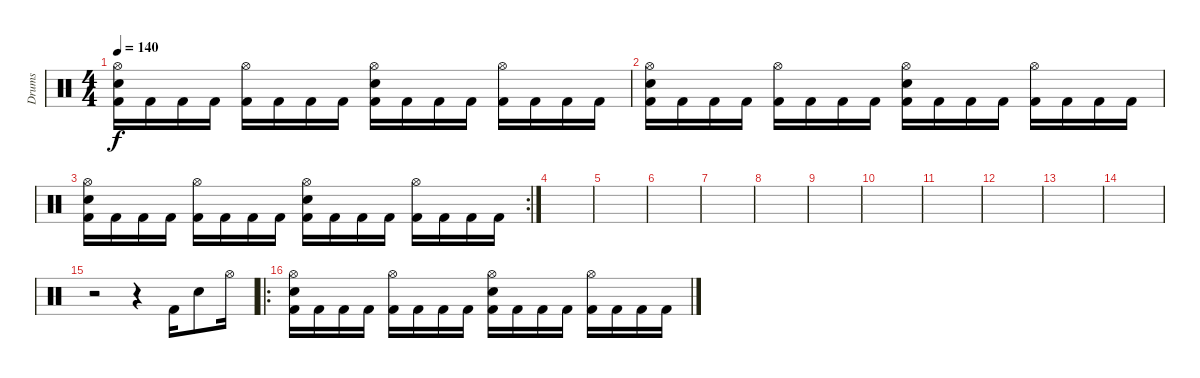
\track ("Drums" "Drums") {instrument percussion}
\staff {score}
\articulation defaults
\ts (4 4)
\tempo 140
\clef neutral
\ks c
("Kick (hit) 2" "Electric Snare (hit)" "Hi-Hat (open)").16{dy f} "Kick (hit) 2".16 "Kick (hit) 2".16 "Kick (hit) 2".16 ("Kick (hit) 2" "Hi-Hat (open)").16 "Kick (hit) 2".16 "Kick (hit) 2".16 "Kick (hit) 2".16 ("Kick (hit) 2" "Electric Snare (hit)" "Hi-Hat (open)").16 "Kick (hit) 2".16 "Kick (hit) 2".16 "Kick (hit) 2".16 ("Kick (hit) 2" "Hi-Hat (open)").16 "Kick (hit) 2".16 "Kick (hit) 2".16 "Kick (hit) 2".16 |
("Kick (hit) 2" "Electric Snare (hit)" "Hi-Hat (open)").16 "Kick (hit) 2".16 "Kick (hit) 2".16 "Kick (hit) 2".16 ("Kick (hit) 2" "Hi-Hat (open)").16 "Kick (hit) 2".16 "Kick (hit) 2".16 "Kick (hit) 2".16 ("Kick (hit) 2" "Electric Snare (hit)" "Hi-Hat (open)").16 "Kick (hit) 2".16 "Kick (hit) 2".16 "Kick (hit) 2".16 ("Kick (hit) 2" "Hi-Hat (open)").16 "Kick (hit) 2".16 "Kick (hit) 2".16 "Kick (hit) 2".16 |
\rc 2
("Kick (hit) 2" "Electric Snare (hit)" "Hi-Hat (open)").16 "Kick (hit) 2".16 "Kick (hit) 2".16 "Kick (hit) 2".16 ("Kick (hit) 2" "Hi-Hat (open)").16 "Kick (hit) 2".16 "Kick (hit) 2".16 "Kick (hit) 2".16 ("Kick (hit) 2" "Electric Snare (hit)" "Hi-Hat (open)").16 "Kick (hit) 2".16 "Kick (hit) 2".16 "Kick (hit) 2".16 ("Kick (hit) 2" "Hi-Hat (open)").16 "Kick (hit) 2".16 "Kick (hit) 2".16 "Kick (hit) 2".16 |
|
|
|
|
|
|
|
|
|
|
|
r.2 r.4 "Kick (hit) 2".16 "Electric Snare (hit)".8 "Hi-Hat (open)".16 |
\ro
("Kick (hit) 2" "Electric Snare (hit)" "Hi-Hat (open)").16 "Kick (hit) 2".16 "Kick (hit) 2".16 "Kick (hit) 2".16 ("Kick (hit) 2" "Hi-Hat (open)").16 "Kick (hit) 2".16 "Kick (hit) 2".16 "Kick (hit) 2".16 ("Kick (hit) 2" "Electric Snare (hit)" "Hi-Hat (open)").16 "Kick (hit) 2".16 "Kick (hit) 2".16 "Kick (hit) 2".16 ("Kick (hit) 2" "Hi-Hat (open)").16 "Kick (hit) 2".16 "Kick (hit) 2".16 "Kick (hit) 2".16
